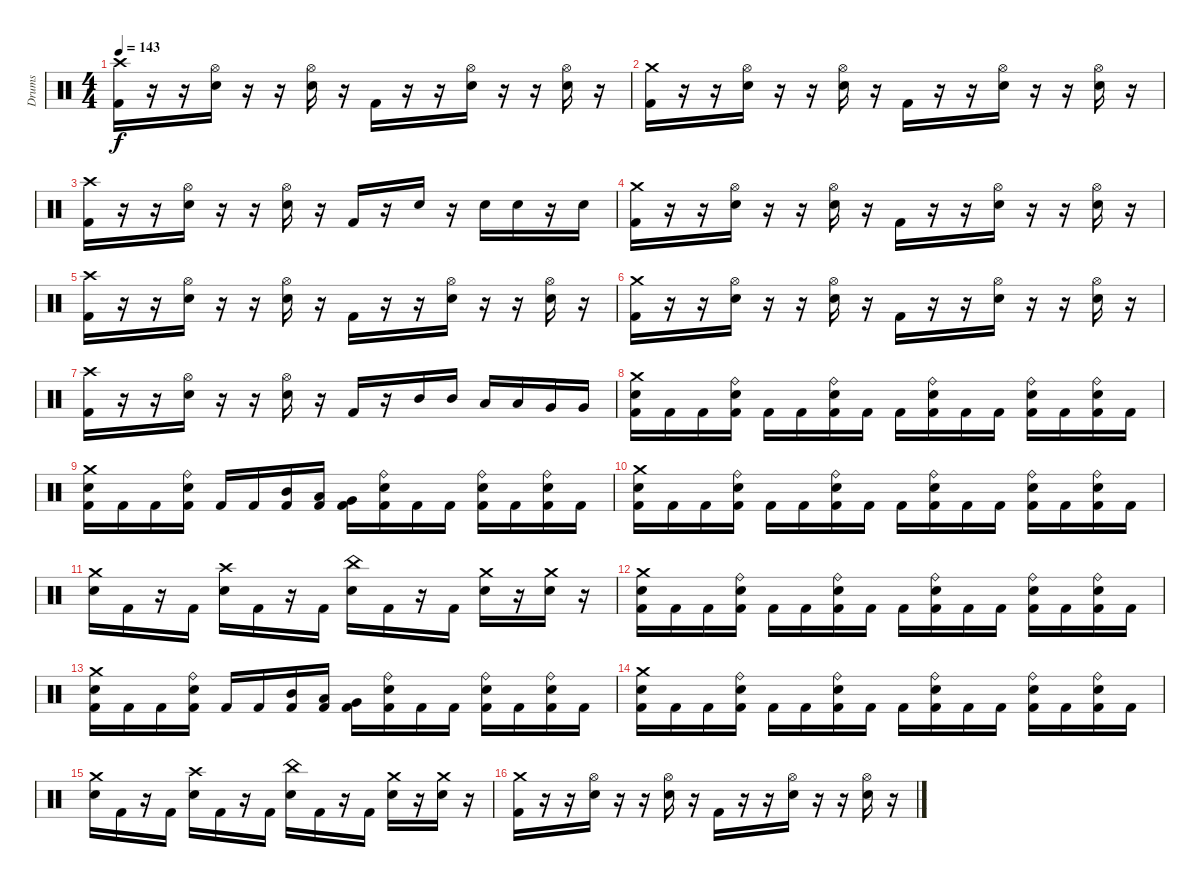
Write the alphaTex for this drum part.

\track ("Drums" "Drums") {instrument percussion}
\staff {score}
\articulation defaults
\ts (4 4)
\tempo 143
\clef neutral
\ks c
("Crash high (hit)" "Kick (hit) 2").16{dy f} r.16 r.16 ("Hi-Hat (open)" "Electric Snare (hit)").16 r.16 r.16 ("Hi-Hat (open)" "Electric Snare (hit)").16 r.16 "Kick (hit) 2".16 r.16 r.16 ("Hi-Hat (open)" "Electric Snare (hit)").16 r.16 r.16 ("Hi-Hat (open)" "Electric Snare (hit)").16 r.16 |
("Crash medium (hit)" "Kick (hit) 2").16 r.16 r.16 ("Hi-Hat (open)" "Electric Snare (hit)").16 r.16 r.16 ("Hi-Hat (open)" "Electric Snare (hit)").16 r.16 "Kick (hit) 2".16 r.16 r.16 ("Hi-Hat (open)" "Electric Snare (hit)").16 r.16 r.16 ("Hi-Hat (open)" "Electric Snare (hit)").16 r.16 |
("Crash high (hit)" "Kick (hit) 2").16 r.16 r.16 ("Hi-Hat (open)" "Electric Snare (hit)").16 r.16 r.16 ("Hi-Hat (open)" "Electric Snare (hit)").16 r.16 "Kick (hit) 2".16 r.16 "Electric Snare (hit)".16 r.16 "Electric Snare (hit)".16 "Electric Snare (hit)".16 r.16 "Electric Snare (hit)".16 |
("Crash medium (hit)" "Kick (hit) 2").16 r.16 r.16 ("Hi-Hat (open)" "Electric Snare (hit)").16 r.16 r.16 ("Hi-Hat (open)" "Electric Snare (hit)").16 r.16 "Kick (hit) 2".16 r.16 r.16 ("Hi-Hat (open)" "Electric Snare (hit)").16 r.16 r.16 ("Hi-Hat (open)" "Electric Snare (hit)").16 r.16 |
("Crash high (hit)" "Kick (hit) 2").16 r.16 r.16 ("Hi-Hat (open)" "Electric Snare (hit)").16 r.16 r.16 ("Hi-Hat (open)" "Electric Snare (hit)").16 r.16 "Kick (hit) 2".16 r.16 r.16 ("Hi-Hat (open)" "Electric Snare (hit)").16 r.16 r.16 ("Hi-Hat (open)" "Electric Snare (hit)").16 r.16 |
("Crash medium (hit)" "Kick (hit) 2").16 r.16 r.16 ("Hi-Hat (open)" "Electric Snare (hit)").16 r.16 r.16 ("Hi-Hat (open)" "Electric Snare (hit)").16 r.16 "Kick (hit) 2".16 r.16 r.16 ("Hi-Hat (open)" "Electric Snare (hit)").16 r.16 r.16 ("Hi-Hat (open)" "Electric Snare (hit)").16 r.16 |
("Crash high (hit)" "Kick (hit) 2").16 r.16 r.16 ("Hi-Hat (open)" "Electric Snare (hit)").16 r.16 r.16 ("Hi-Hat (open)" "Electric Snare (hit)").16 r.16 "Kick (hit) 2".16 r.16 "Mid Tom (hit)".16 "Mid Tom (hit)".16 "Low Tom (hit)".16 "Low Tom (hit)".16 "Very Low Tom (hit)".16 "Very Low Tom (hit)".16 |
\section ("" "")
("Crash medium (hit)" "Electric Snare (hit)" "Kick (hit) 2").16 "Kick (hit) 2".16 "Kick (hit) 2".16 ("Ride (bell)" "Electric Snare (hit)" "Kick (hit) 2").16 "Kick (hit) 2".16 "Kick (hit) 2".16 ("Ride (bell)" "Electric Snare (hit)" "Kick (hit) 2").16 "Kick (hit) 2".16 "Kick (hit) 2".16 ("Ride (bell)" "Electric Snare (hit)" "Kick (hit) 2").16 "Kick (hit) 2".16 "Kick (hit) 2".16 ("Ride (bell)" "Electric Snare (hit)" "Kick (hit) 2").16 "Kick (hit) 2".16 ("Ride (bell)" "Electric Snare (hit)" "Kick (hit) 2").16 "Kick (hit) 2".16 |
("Crash medium (hit)" "Electric Snare (hit)" "Kick (hit) 2").16 "Kick (hit) 2".16 "Kick (hit) 2".16 ("Ride (bell)" "Electric Snare (hit)" "Kick (hit) 2").16 "Kick (hit) 2".16 "Kick (hit) 2".16 ("Mid Tom (hit)" "Kick (hit) 2").16 ("Low Tom (hit)" "Kick (hit) 2").16 ("Very Low Tom (hit)" "Kick (hit) 2").16 ("Ride (bell)" "Electric Snare (hit)" "Kick (hit) 2").16 "Kick (hit) 2".16 "Kick (hit) 2".16 ("Ride (bell)" "Electric Snare (hit)" "Kick (hit) 2").16 "Kick (hit) 2".16 ("Ride (bell)" "Electric Snare (hit)" "Kick (hit) 2").16 "Kick (hit) 2".16 |
("Crash medium (hit)" "Electric Snare (hit)" "Kick (hit) 2").16 "Kick (hit) 2".16 "Kick (hit) 2".16 ("Ride (bell)" "Electric Snare (hit)" "Kick (hit) 2").16 "Kick (hit) 2".16 "Kick (hit) 2".16 ("Ride (bell)" "Electric Snare (hit)" "Kick (hit) 2").16 "Kick (hit) 2".16 "Kick (hit) 2".16 ("Ride (bell)" "Electric Snare (hit)" "Kick (hit) 2").16 "Kick (hit) 2".16 "Kick (hit) 2".16 ("Ride (bell)" "Electric Snare (hit)" "Kick (hit) 2").16 "Kick (hit) 2".16 ("Ride (bell)" "Electric Snare (hit)" "Kick (hit) 2").16 "Kick (hit) 2".16 |
("Crash medium (hit)" "Electric Snare (hit)").16 "Kick (hit) 2".16 r.16 "Kick (hit) 2".16 ("Crash high (hit)" "Electric Snare (hit)").16 "Kick (hit) 2".16 r.16 "Kick (hit) 2".16 ("China (hit)" "Electric Snare (hit)").16 "Kick (hit) 2".16 r.16 "Kick (hit) 2".16 ("Crash medium (hit)" "Electric Snare (hit)").16 r.16 ("Crash medium (hit)" "Electric Snare (hit)").16 r.16 |
("Crash medium (hit)" "Electric Snare (hit)" "Kick (hit) 2").16 "Kick (hit) 2".16 "Kick (hit) 2".16 ("Ride (bell)" "Electric Snare (hit)" "Kick (hit) 2").16 "Kick (hit) 2".16 "Kick (hit) 2".16 ("Ride (bell)" "Electric Snare (hit)" "Kick (hit) 2").16 "Kick (hit) 2".16 "Kick (hit) 2".16 ("Ride (bell)" "Electric Snare (hit)" "Kick (hit) 2").16 "Kick (hit) 2".16 "Kick (hit) 2".16 ("Ride (bell)" "Electric Snare (hit)" "Kick (hit) 2").16 "Kick (hit) 2".16 ("Ride (bell)" "Electric Snare (hit)" "Kick (hit) 2").16 "Kick (hit) 2".16 |
("Crash medium (hit)" "Electric Snare (hit)" "Kick (hit) 2").16 "Kick (hit) 2".16 "Kick (hit) 2".16 ("Ride (bell)" "Electric Snare (hit)" "Kick (hit) 2").16 "Kick (hit) 2".16 "Kick (hit) 2".16 ("Mid Tom (hit)" "Kick (hit) 2").16 ("Low Tom (hit)" "Kick (hit) 2").16 ("Very Low Tom (hit)" "Kick (hit) 2").16 ("Ride (bell)" "Electric Snare (hit)" "Kick (hit) 2").16 "Kick (hit) 2".16 "Kick (hit) 2".16 ("Ride (bell)" "Electric Snare (hit)" "Kick (hit) 2").16 "Kick (hit) 2".16 ("Ride (bell)" "Electric Snare (hit)" "Kick (hit) 2").16 "Kick (hit) 2".16 |
("Crash medium (hit)" "Electric Snare (hit)" "Kick (hit) 2").16 "Kick (hit) 2".16 "Kick (hit) 2".16 ("Ride (bell)" "Electric Snare (hit)" "Kick (hit) 2").16 "Kick (hit) 2".16 "Kick (hit) 2".16 ("Ride (bell)" "Electric Snare (hit)" "Kick (hit) 2").16 "Kick (hit) 2".16 "Kick (hit) 2".16 ("Ride (bell)" "Electric Snare (hit)" "Kick (hit) 2").16 "Kick (hit) 2".16 "Kick (hit) 2".16 ("Ride (bell)" "Electric Snare (hit)" "Kick (hit) 2").16 "Kick (hit) 2".16 ("Ride (bell)" "Electric Snare (hit)" "Kick (hit) 2").16 "Kick (hit) 2".16 |
("Crash medium (hit)" "Electric Snare (hit)").16 "Kick (hit) 2".16 r.16 "Kick (hit) 2".16 ("Crash high (hit)" "Electric Snare (hit)").16 "Kick (hit) 2".16 r.16 "Kick (hit) 2".16 ("China (hit)" "Electric Snare (hit)").16 "Kick (hit) 2".16 r.16 "Kick (hit) 2".16 ("Crash medium (hit)" "Electric Snare (hit)").16 r.16 ("Crash medium (hit)" "Electric Snare (hit)").16 r.16 |
\section ("" "")
("Crash medium (hit)" "Kick (hit) 2").16 r.16 r.16 ("Hi-Hat (open)" "Electric Snare (hit)").16 r.16 r.16 ("Hi-Hat (open)" "Electric Snare (hit)").16 r.16 "Kick (hit) 2".16 r.16 r.16 ("Hi-Hat (open)" "Electric Snare (hit)").16 r.16 r.16 ("Hi-Hat (open)" "Electric Snare (hit)").16 r.16
